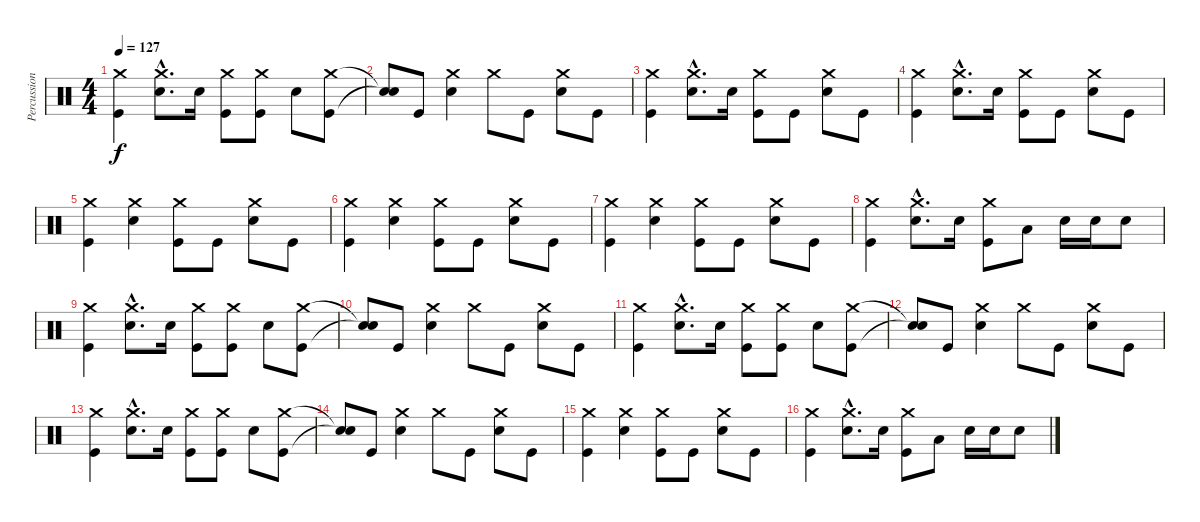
\track ("Percussion" "Percussion") {instrument percussion}
\staff {score}
\articulation defaults
\ts (4 4)
\tempo 127
\clef neutral
\ks c
("Crash medium (hit)" "Kick (hit)").4{dy f} ("Crash medium (hit)"{hac} "Snare (hit) 2"{hac}).8{d} "Snare (hit) 2".16 ("Crash medium (hit)" "Kick (hit)").8 ("Crash medium (hit)" "Kick (hit)").8 "Snare (hit) 2".8 ("Crash medium (hit)" "Kick (hit)").8 |
("Snare (hit)"{t} "Snare (hit)"{t}).8 "Kick (hit)".8 ("Crash medium (hit)" "Snare (hit) 2").4 "Crash medium (hit)".8 "Kick (hit)".8 ("Crash medium (hit)" "Snare (hit) 2").8 "Kick (hit)".8 |
("Crash medium (hit)" "Kick (hit)").4 ("Crash medium (hit)"{hac} "Snare (hit) 2"{hac}).8{d} "Snare (hit) 2".16 ("Crash medium (hit)" "Kick (hit)").8 "Kick (hit)".8 ("Crash medium (hit)" "Snare (hit) 2").8 "Kick (hit)".8 |
("Crash medium (hit)" "Kick (hit)").4 ("Crash medium (hit)"{hac} "Snare (hit) 2"{hac}).8{d} "Snare (hit) 2".16 ("Crash medium (hit)" "Kick (hit)").8 "Kick (hit)".8 ("Crash medium (hit)" "Snare (hit) 2").8 "Kick (hit)".8 |
("Crash medium (hit)" "Kick (hit)").4 ("Crash medium (hit)" "Snare (hit) 2").4 ("Crash medium (hit)" "Kick (hit)").8 "Kick (hit)".8 ("Crash medium (hit)" "Snare (hit) 2").8 "Kick (hit)".8 |
("Crash medium (hit)" "Kick (hit)").4 ("Crash medium (hit)" "Snare (hit) 2").4 ("Crash medium (hit)" "Kick (hit)").8 "Kick (hit)".8 ("Crash medium (hit)" "Snare (hit) 2").8 "Kick (hit)".8 |
("Crash medium (hit)" "Kick (hit)").4 ("Crash medium (hit)" "Snare (hit) 2").4 ("Crash medium (hit)" "Kick (hit)").8 "Kick (hit)".8 ("Crash medium (hit)" "Snare (hit) 2").8 "Kick (hit)".8 |
("Crash medium (hit)" "Kick (hit)").4 ("Crash medium (hit)"{hac} "Snare (hit) 2"{hac}).8{d} "Snare (hit) 2".16 ("Crash medium (hit)" "Kick (hit)").8 "Low Tom (hit)".8 "Snare (hit) 2".16 "Snare (hit) 2".16 "Snare (hit) 2".8 |
("Crash medium (hit)" "Kick (hit)").4 ("Crash medium (hit)"{hac} "Snare (hit) 2"{hac}).8{d} "Snare (hit) 2".16 ("Crash medium (hit)" "Kick (hit)").8 ("Crash medium (hit)" "Kick (hit)").8 "Snare (hit) 2".8 ("Crash medium (hit)" "Kick (hit)").8 |
("Snare (hit)"{t} "Snare (hit)"{t}).8 "Kick (hit)".8 ("Crash medium (hit)" "Snare (hit) 2").4 "Crash medium (hit)".8 "Kick (hit)".8 ("Crash medium (hit)" "Snare (hit) 2").8 "Kick (hit)".8 |
("Crash medium (hit)" "Kick (hit)").4 ("Crash medium (hit)"{hac} "Snare (hit) 2"{hac}).8{d} "Snare (hit) 2".16 ("Crash medium (hit)" "Kick (hit)").8 ("Crash medium (hit)" "Kick (hit)").8 "Snare (hit) 2".8 ("Crash medium (hit)" "Kick (hit)").8 |
("Snare (hit)"{t} "Snare (hit)"{t}).8 "Kick (hit)".8 ("Crash medium (hit)" "Snare (hit) 2").4 "Crash medium (hit)".8 "Kick (hit)".8 ("Crash medium (hit)" "Snare (hit) 2").8 "Kick (hit)".8 |
("Crash medium (hit)" "Kick (hit)").4 ("Crash medium (hit)"{hac} "Snare (hit) 2"{hac}).8{d} "Snare (hit) 2".16 ("Crash medium (hit)" "Kick (hit)").8 ("Crash medium (hit)" "Kick (hit)").8 "Snare (hit) 2".8 ("Crash medium (hit)" "Kick (hit)").8 |
("Snare (hit)"{t} "Snare (hit)"{t}).8 "Kick (hit)".8 ("Crash medium (hit)" "Snare (hit) 2").4 "Crash medium (hit)".8 "Kick (hit)".8 ("Crash medium (hit)" "Snare (hit) 2").8 "Kick (hit)".8 |
("Crash medium (hit)" "Kick (hit)").4 ("Crash medium (hit)" "Snare (hit) 2").4 ("Crash medium (hit)" "Kick (hit)").8 "Kick (hit)".8 ("Crash medium (hit)" "Snare (hit) 2").8 "Kick (hit)".8 |
("Crash medium (hit)" "Kick (hit)").4 ("Crash medium (hit)"{hac} "Snare (hit) 2"{hac}).8{d} "Snare (hit) 2".16 ("Crash medium (hit)" "Kick (hit)").8 "Low Tom (hit)".8 "Snare (hit) 2".16 "Snare (hit) 2".16 "Snare (hit) 2".8
